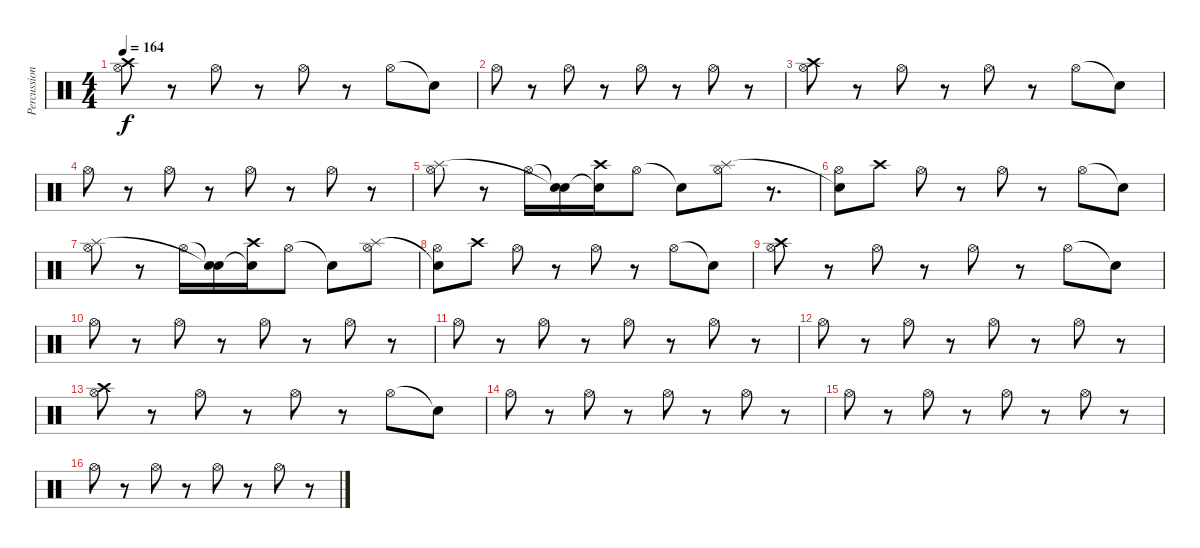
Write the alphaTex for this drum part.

\track ("Percussion" "Percussion") {instrument percussion}
\staff {score}
\articulation defaults
\ts (4 4)
\tempo 164
\clef neutral
\ks c
("Hi-Hat (open)" "Crash high (hit)").8{dy f} r.8 "Hi-Hat (open)".8 r.8 "Hi-Hat (open)".8 r.8 "Hi-Hat (open)".8 "Snare (hit)"{t}.8 |
"Hi-Hat (open)".8 r.8 "Hi-Hat (open)".8 r.8 "Hi-Hat (open)".8 r.8 "Hi-Hat (open)".8 r.8 |
("Hi-Hat (open)" "Crash high (hit)").8 r.8 "Hi-Hat (open)".8 r.8 "Hi-Hat (open)".8 r.8 "Hi-Hat (open)".8 "Snare (hit)"{t}.8 |
"Hi-Hat (open)".8 r.8 "Hi-Hat (open)".8 r.8 "Hi-Hat (open)".8 r.8 "Hi-Hat (open)".8 r.8 |
("Hi-Hat (open)" "Splash (hit)").8 r.8 "Hi-Hat (open)".16 ("Snare (hit)"{t} "Snare (hit)"{t}).16 ("Snare (hit)"{t} "Crash high (hit)").16 "Hi-Hat (open)".8 "Snare (hit)"{t}.8 ("Hi-Hat (open)" "Splash (hit)").8 r.8{d} |
("Hi-Hat (open)" "Snare (hit)"{t}).8 "Crash high (hit)".8 "Hi-Hat (open)".8 r.8 "Hi-Hat (open)".8 r.8 "Hi-Hat (open)".8 "Snare (hit)"{t}.8 |
("Hi-Hat (open)" "Splash (hit)").8 r.8 "Hi-Hat (open)".16 ("Snare (hit)"{t} "Snare (hit)"{t}).16 ("Snare (hit)"{t} "Crash high (hit)").16 "Hi-Hat (open)".8 "Snare (hit)"{t}.8 ("Hi-Hat (open)" "Splash (hit)").8 |
("Hi-Hat (open)" "Snare (hit)"{t}).8 "Crash high (hit)".8 "Hi-Hat (open)".8 r.8 "Hi-Hat (open)".8 r.8 "Hi-Hat (open)".8 "Snare (hit)"{t}.8 |
("Hi-Hat (open)" "Crash high (hit)").8 r.8 "Hi-Hat (open)".8 r.8 "Hi-Hat (open)".8 r.8 "Hi-Hat (open)".8 "Snare (hit)"{t}.8 |
"Hi-Hat (open)".8 r.8 "Hi-Hat (open)".8 r.8 "Hi-Hat (open)".8 r.8 "Hi-Hat (open)".8 r.8 |
"Hi-Hat (open)".8 r.8 "Hi-Hat (open)".8 r.8 "Hi-Hat (open)".8 r.8 "Hi-Hat (open)".8 r.8 |
"Hi-Hat (open)".8 r.8 "Hi-Hat (open)".8 r.8 "Hi-Hat (open)".8 r.8 "Hi-Hat (open)".8 r.8 |
("Hi-Hat (open)" "Crash high (hit)").8 r.8 "Hi-Hat (open)".8 r.8 "Hi-Hat (open)".8 r.8 "Hi-Hat (open)".8 "Snare (hit)"{t}.8 |
"Hi-Hat (open)".8 r.8 "Hi-Hat (open)".8 r.8 "Hi-Hat (open)".8 r.8 "Hi-Hat (open)".8 r.8 |
"Hi-Hat (open)".8 r.8 "Hi-Hat (open)".8 r.8 "Hi-Hat (open)".8 r.8 "Hi-Hat (open)".8 r.8 |
"Hi-Hat (open)".8 r.8 "Hi-Hat (open)".8 r.8 "Hi-Hat (open)".8 r.8 "Hi-Hat (open)".8 r.8
